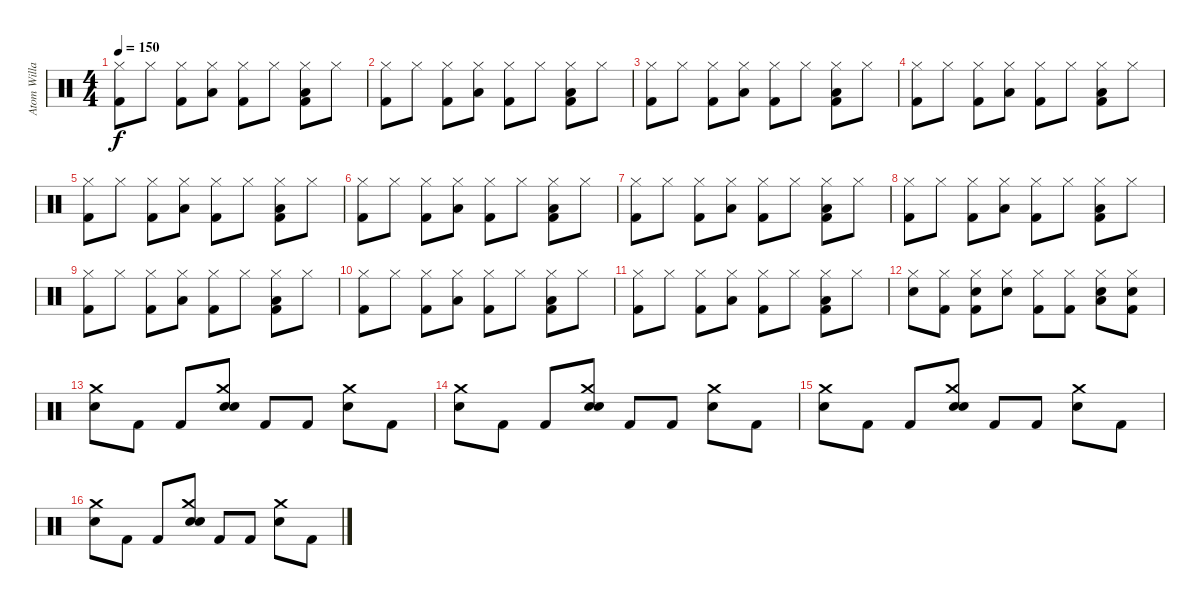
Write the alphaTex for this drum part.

\track ("Atom Willard - Drums" "Atom Willa") {instrument percussion}
\staff {score}
\articulation defaults
\ts (4 4)
\tempo 150
\clef neutral
\ks c
("Hi-Hat (closed)" "Kick (hit) 2").8{dy f} "Hi-Hat (closed)".8 ("Hi-Hat (closed)" "Kick (hit) 2").8 ("Low Tom (hit)" "Hi-Hat (closed)").8 ("Hi-Hat (closed)" "Kick (hit) 2").8 "Hi-Hat (closed)".8 ("Low Floor Tom (hit)" "Hi-Hat (closed)" "Kick (hit) 2").8 "Hi-Hat (closed)".8 |
("Hi-Hat (closed)" "Kick (hit) 2").8 "Hi-Hat (closed)".8 ("Hi-Hat (closed)" "Kick (hit) 2").8 ("Low Tom (hit)" "Hi-Hat (closed)").8 ("Hi-Hat (closed)" "Kick (hit) 2").8 "Hi-Hat (closed)".8 ("Low Floor Tom (hit)" "Hi-Hat (closed)" "Kick (hit) 2").8 "Hi-Hat (closed)".8 |
("Hi-Hat (closed)" "Kick (hit) 2").8 "Hi-Hat (closed)".8 ("Hi-Hat (closed)" "Kick (hit) 2").8 ("Low Tom (hit)" "Hi-Hat (closed)").8 ("Hi-Hat (closed)" "Kick (hit) 2").8 "Hi-Hat (closed)".8 ("Low Floor Tom (hit)" "Hi-Hat (closed)" "Kick (hit) 2").8 "Hi-Hat (closed)".8 |
("Hi-Hat (closed)" "Kick (hit) 2").8 "Hi-Hat (closed)".8 ("Hi-Hat (closed)" "Kick (hit) 2").8 ("Low Tom (hit)" "Hi-Hat (closed)").8 ("Hi-Hat (closed)" "Kick (hit) 2").8 "Hi-Hat (closed)".8 ("Low Floor Tom (hit)" "Hi-Hat (closed)" "Kick (hit) 2").8 "Hi-Hat (closed)".8 |
("Hi-Hat (closed)" "Kick (hit) 2").8 "Hi-Hat (closed)".8 ("Hi-Hat (closed)" "Kick (hit) 2").8 ("Low Tom (hit)" "Hi-Hat (closed)").8 ("Hi-Hat (closed)" "Kick (hit) 2").8 "Hi-Hat (closed)".8 ("Low Floor Tom (hit)" "Hi-Hat (closed)" "Kick (hit) 2").8 "Hi-Hat (closed)".8 |
("Hi-Hat (closed)" "Kick (hit) 2").8 "Hi-Hat (closed)".8 ("Hi-Hat (closed)" "Kick (hit) 2").8 ("Low Tom (hit)" "Hi-Hat (closed)").8 ("Hi-Hat (closed)" "Kick (hit) 2").8 "Hi-Hat (closed)".8 ("Low Floor Tom (hit)" "Hi-Hat (closed)" "Kick (hit) 2").8 "Hi-Hat (closed)".8 |
("Hi-Hat (closed)" "Kick (hit) 2").8 "Hi-Hat (closed)".8 ("Hi-Hat (closed)" "Kick (hit) 2").8 ("Low Tom (hit)" "Hi-Hat (closed)").8 ("Hi-Hat (closed)" "Kick (hit) 2").8 "Hi-Hat (closed)".8 ("Low Floor Tom (hit)" "Hi-Hat (closed)" "Kick (hit) 2").8 "Hi-Hat (closed)".8 |
("Hi-Hat (closed)" "Kick (hit) 2").8 "Hi-Hat (closed)".8 ("Hi-Hat (closed)" "Kick (hit) 2").8 ("Low Tom (hit)" "Hi-Hat (closed)").8 ("Hi-Hat (closed)" "Kick (hit) 2").8 "Hi-Hat (closed)".8 ("Low Floor Tom (hit)" "Hi-Hat (closed)" "Kick (hit) 2").8 "Hi-Hat (closed)".8 |
("Hi-Hat (closed)" "Kick (hit) 2").8 "Hi-Hat (closed)".8 ("Hi-Hat (closed)" "Kick (hit) 2").8 ("Low Tom (hit)" "Hi-Hat (closed)").8 ("Hi-Hat (closed)" "Kick (hit) 2").8 "Hi-Hat (closed)".8 ("Low Floor Tom (hit)" "Hi-Hat (closed)" "Kick (hit) 2").8 "Hi-Hat (closed)".8 |
("Hi-Hat (closed)" "Kick (hit) 2").8 "Hi-Hat (closed)".8 ("Hi-Hat (closed)" "Kick (hit) 2").8 ("Low Tom (hit)" "Hi-Hat (closed)").8 ("Hi-Hat (closed)" "Kick (hit) 2").8 "Hi-Hat (closed)".8 ("Low Floor Tom (hit)" "Hi-Hat (closed)" "Kick (hit) 2").8 "Hi-Hat (closed)".8 |
("Hi-Hat (closed)" "Kick (hit) 2").8 "Hi-Hat (closed)".8 ("Hi-Hat (closed)" "Kick (hit) 2").8 ("Low Tom (hit)" "Hi-Hat (closed)").8 ("Hi-Hat (closed)" "Kick (hit) 2").8 "Hi-Hat (closed)".8 ("Low Floor Tom (hit)" "Hi-Hat (closed)" "Kick (hit) 2").8 "Hi-Hat (closed)".8 |
("Hi-Hat (closed)" "Electric Snare (hit)").8 ("Hi-Hat (closed)" "Kick (hit) 2").8 ("Electric Snare (hit)" "Hi-Hat (closed)" "Kick (hit) 2").8 ("Hi-Hat (closed)" "Electric Snare (hit)").8 ("Hi-Hat (closed)" "Kick (hit) 2").8 ("Hi-Hat (closed)" "Kick (hit) 2").8 ("Low Floor Tom (hit)" "Hi-Hat (closed)" "Electric Snare (hit)").8 ("Electric Snare (hit)" "Hi-Hat (closed)" "Kick (hit) 2").8 |
("Crash medium (hit)" "Electric Snare (hit)").8 "Kick (hit) 2".8 "Kick (hit) 2".8 ("Crash medium (hit)" "Electric Snare (hit)" "Snare (hit)").8 "Kick (hit) 2".8 "Kick (hit) 2".8 ("Crash medium (hit)" "Electric Snare (hit)").8 "Kick (hit) 2".8 |
("Crash medium (hit)" "Electric Snare (hit)").8 "Kick (hit) 2".8 "Kick (hit) 2".8 ("Crash medium (hit)" "Electric Snare (hit)" "Snare (hit)").8 "Kick (hit) 2".8 "Kick (hit) 2".8 ("Crash medium (hit)" "Electric Snare (hit)").8 "Kick (hit) 2".8 |
("Crash medium (hit)" "Electric Snare (hit)").8 "Kick (hit) 2".8 "Kick (hit) 2".8 ("Crash medium (hit)" "Electric Snare (hit)" "Snare (hit)").8 "Kick (hit) 2".8 "Kick (hit) 2".8 ("Crash medium (hit)" "Electric Snare (hit)").8 "Kick (hit) 2".8 |
("Crash medium (hit)" "Electric Snare (hit)").8 "Kick (hit) 2".8 "Kick (hit) 2".8 ("Crash medium (hit)" "Electric Snare (hit)" "Snare (hit)").8 "Kick (hit) 2".8 "Kick (hit) 2".8 ("Crash medium (hit)" "Electric Snare (hit)").8 "Kick (hit) 2".8
